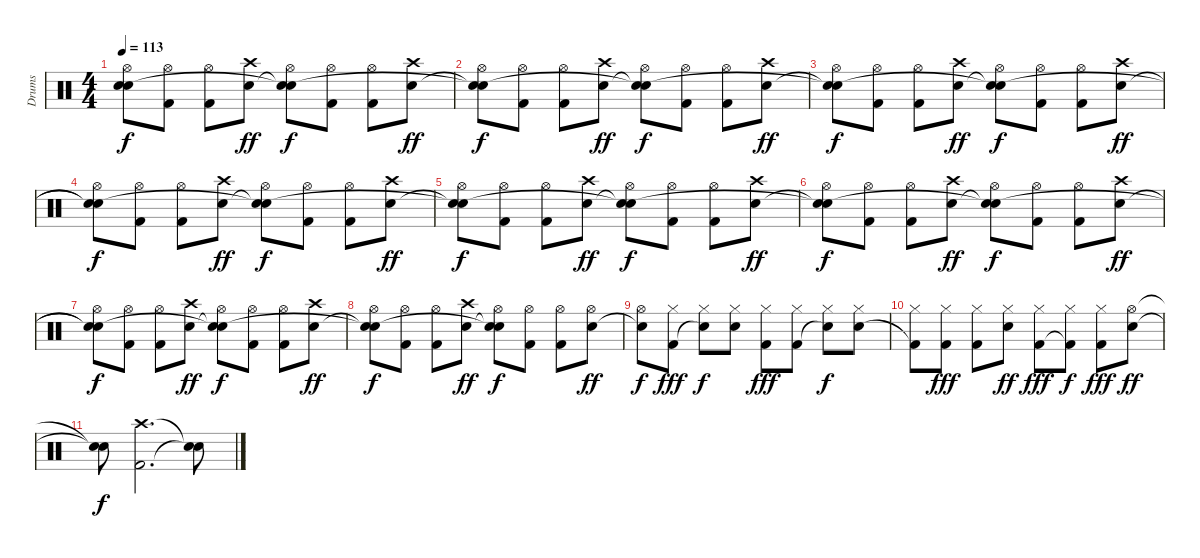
\track ("Drums" "Drums") {instrument percussion}
\staff {score}
\articulation defaults
\ts (4 4)
\tempo 113
\clef neutral
\ks c
("Snare (hit)"{t} "Hi-Hat (open)" "Snare (hit)"{t}).8{dy f} ("Kick (hit) 2" "Hi-Hat (open)").8 ("Kick (hit) 2" "Hi-Hat (open)").8 ("Snare (hit) 2" "Crash high (hit)").8{dy ff} ("Snare (hit)"{t} "Hi-Hat (open)" "Snare (hit)"{t}).8{dy f} ("Kick (hit) 2" "Hi-Hat (open)").8 ("Kick (hit) 2" "Hi-Hat (open)").8 ("Snare (hit) 2" "Crash high (hit)").8{dy ff} |
("Snare (hit)"{t} "Hi-Hat (open)" "Snare (hit)"{t}).8{dy f} ("Kick (hit) 2" "Hi-Hat (open)").8 ("Kick (hit) 2" "Hi-Hat (open)").8 ("Snare (hit) 2" "Crash high (hit)").8{dy ff} ("Snare (hit)"{t} "Hi-Hat (open)" "Snare (hit)"{t}).8{dy f} ("Kick (hit) 2" "Hi-Hat (open)").8 ("Kick (hit) 2" "Hi-Hat (open)").8 ("Snare (hit) 2" "Crash high (hit)").8{dy ff} |
("Snare (hit)"{t} "Hi-Hat (open)" "Snare (hit)"{t}).8{dy f} ("Kick (hit) 2" "Hi-Hat (open)").8 ("Kick (hit) 2" "Hi-Hat (open)").8 ("Snare (hit) 2" "Crash high (hit)").8{dy ff} ("Snare (hit)"{t} "Hi-Hat (open)" "Snare (hit)"{t}).8{dy f} ("Kick (hit) 2" "Hi-Hat (open)").8 ("Kick (hit) 2" "Hi-Hat (open)").8 ("Snare (hit) 2" "Crash high (hit)").8{dy ff} |
("Snare (hit)"{t} "Hi-Hat (open)" "Snare (hit)"{t}).8{dy f} ("Kick (hit) 2" "Hi-Hat (open)").8 ("Kick (hit) 2" "Hi-Hat (open)").8 ("Snare (hit) 2" "Crash high (hit)").8{dy ff} ("Snare (hit)"{t} "Hi-Hat (open)" "Snare (hit)"{t}).8{dy f} ("Kick (hit) 2" "Hi-Hat (open)").8 ("Kick (hit) 2" "Hi-Hat (open)").8 ("Snare (hit) 2" "Crash high (hit)").8{dy ff} |
("Snare (hit)"{t} "Hi-Hat (open)" "Snare (hit)"{t}).8{dy f} ("Kick (hit) 2" "Hi-Hat (open)").8 ("Kick (hit) 2" "Hi-Hat (open)").8 ("Snare (hit) 2" "Crash high (hit)").8{dy ff} ("Snare (hit)"{t} "Hi-Hat (open)" "Snare (hit)"{t}).8{dy f} ("Kick (hit) 2" "Hi-Hat (open)").8 ("Kick (hit) 2" "Hi-Hat (open)").8 ("Snare (hit) 2" "Crash high (hit)").8{dy ff} |
("Snare (hit)"{t} "Hi-Hat (open)" "Snare (hit)"{t}).8{dy f} ("Kick (hit) 2" "Hi-Hat (open)").8 ("Kick (hit) 2" "Hi-Hat (open)").8 ("Snare (hit) 2" "Crash high (hit)").8{dy ff} ("Snare (hit)"{t} "Hi-Hat (open)" "Snare (hit)"{t}).8{dy f} ("Kick (hit) 2" "Hi-Hat (open)").8 ("Kick (hit) 2" "Hi-Hat (open)").8 ("Snare (hit) 2" "Crash high (hit)").8{dy ff} |
("Snare (hit)"{t} "Hi-Hat (open)" "Snare (hit)"{t}).8{dy f} ("Kick (hit) 2" "Hi-Hat (open)").8 ("Kick (hit) 2" "Hi-Hat (open)").8 ("Snare (hit) 2" "Crash high (hit)").8{dy ff} ("Snare (hit)"{t} "Hi-Hat (open)" "Snare (hit)"{t}).8{dy f} ("Kick (hit) 2" "Hi-Hat (open)").8 ("Kick (hit) 2" "Hi-Hat (open)").8 ("Snare (hit) 2" "Crash high (hit)").8{dy ff} |
("Snare (hit)"{t} "Hi-Hat (open)" "Snare (hit)"{t}).8{dy f} ("Kick (hit) 2" "Hi-Hat (open)").8 ("Kick (hit) 2" "Hi-Hat (open)").8 ("Snare (hit) 2" "Crash high (hit)").8{dy ff} ("Snare (hit)"{t} "Hi-Hat (open)" "Snare (hit)"{t}).8{dy f} ("Kick (hit) 2" "Hi-Hat (open)").8 ("Kick (hit) 2" "Hi-Hat (open)").8 ("Snare (hit) 2" "Hi-Hat (open)").8{dy ff} |
("Snare (hit)"{t} "Hi-Hat (open)").8{dy f} ("Kick (hit) 2" "Hi-Hat (closed)").8{dy fff} ("Snare (hit)"{t} "Hi-Hat (closed)").8{dy f} ("Snare (hit) 2" "Hi-Hat (closed)").8 ("Kick (hit) 2" "Hi-Hat (closed)").8{dy fff} ("Kick (hit) 2" "Hi-Hat (closed)").8 ("Snare (hit)"{t} "Hi-Hat (closed)").8{dy f} ("Snare (hit) 2" "Hi-Hat (closed)").8 |
("Kick (hit) 2"{t} "Hi-Hat (closed)").8 ("Kick (hit) 2" "Hi-Hat (closed)").8{dy fff} ("Kick (hit) 2" "Hi-Hat (closed)").8 ("Snare (hit) 2" "Hi-Hat (closed)").8{dy ff} ("Kick (hit) 2" "Hi-Hat (closed)").8{dy fff} ("Kick (hit) 2"{t} "Hi-Hat (closed)").8{dy f} ("Kick (hit) 2" "Hi-Hat (closed)").8{dy fff} ("Snare (hit) 2" "Hi-Hat (open)").8{dy ff} |
("Snare (hit)"{t} "Snare (hit)"{t}).8{dy f} ("Kick (hit) 2" "Crash high (hit)").2{d} ("Snare (hit)"{t} "Snare (hit)"{t}).8
